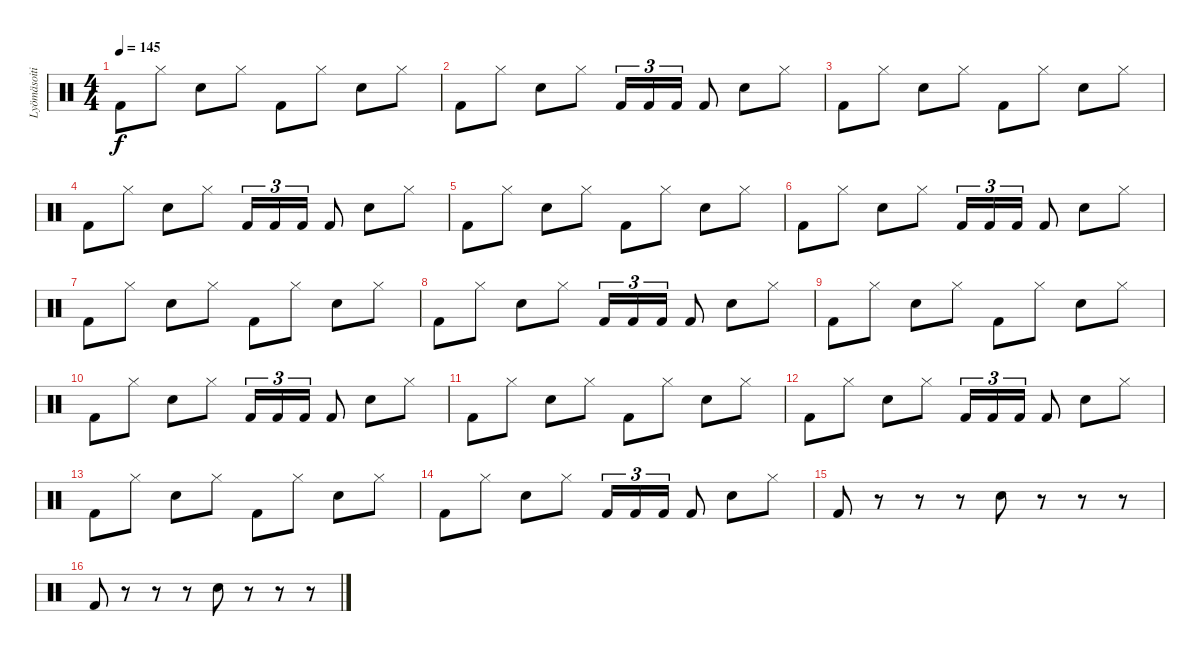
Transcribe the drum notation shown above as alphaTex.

\track ("Lyömäsoitin" "Lyömäsoiti") {instrument percussion}
\staff {score}
\articulation defaults
\ts (4 4)
\tempo 145
\clef neutral
\ks c "Kick (hit) 2".8{dy f} "Hi-Hat (closed)".8 "Electric Snare (hit)".8 "Hi-Hat (closed)".8 "Kick (hit) 2".8 "Hi-Hat (closed)".8 "Electric Snare (hit)".8 "Hi-Hat (closed)".8
|
"Kick (hit) 2".8 "Hi-Hat (closed)".8 "Electric Snare (hit)".8 "Hi-Hat (closed)".8 "Kick (hit) 2".16{tu (3 2)} "Kick (hit) 2".16{tu (3 2)} "Kick (hit) 2".16{tu (3 2)} "Kick (hit) 2".8 "Electric Snare (hit)".8 "Hi-Hat (closed)".8 |
"Kick (hit) 2".8 "Hi-Hat (closed)".8 "Electric Snare (hit)".8 "Hi-Hat (closed)".8 "Kick (hit) 2".8 "Hi-Hat (closed)".8 "Electric Snare (hit)".8 "Hi-Hat (closed)".8 |
"Kick (hit) 2".8 "Hi-Hat (closed)".8 "Electric Snare (hit)".8 "Hi-Hat (closed)".8 "Kick (hit) 2".16{tu (3 2)} "Kick (hit) 2".16{tu (3 2)} "Kick (hit) 2".16{tu (3 2)} "Kick (hit) 2".8 "Electric Snare (hit)".8 "Hi-Hat (closed)".8 |
"Kick (hit) 2".8 "Hi-Hat (closed)".8 "Electric Snare (hit)".8 "Hi-Hat (closed)".8 "Kick (hit) 2".8 "Hi-Hat (closed)".8 "Electric Snare (hit)".8 "Hi-Hat (closed)".8 |
"Kick (hit) 2".8 "Hi-Hat (closed)".8 "Electric Snare (hit)".8 "Hi-Hat (closed)".8 "Kick (hit) 2".16{tu (3 2)} "Kick (hit) 2".16{tu (3 2)} "Kick (hit) 2".16{tu (3 2)} "Kick (hit) 2".8 "Electric Snare (hit)".8 "Hi-Hat (closed)".8 |
"Kick (hit) 2".8 "Hi-Hat (closed)".8 "Electric Snare (hit)".8 "Hi-Hat (closed)".8 "Kick (hit) 2".8 "Hi-Hat (closed)".8 "Electric Snare (hit)".8 "Hi-Hat (closed)".8 |
"Kick (hit) 2".8 "Hi-Hat (closed)".8 "Electric Snare (hit)".8 "Hi-Hat (closed)".8 "Kick (hit) 2".16{tu (3 2)} "Kick (hit) 2".16{tu (3 2)} "Kick (hit) 2".16{tu (3 2)} "Kick (hit) 2".8 "Electric Snare (hit)".8 "Hi-Hat (closed)".8 |
"Kick (hit) 2".8 "Hi-Hat (closed)".8 "Electric Snare (hit)".8 "Hi-Hat (closed)".8 "Kick (hit) 2".8 "Hi-Hat (closed)".8 "Electric Snare (hit)".8 "Hi-Hat (closed)".8 |
"Kick (hit) 2".8 "Hi-Hat (closed)".8 "Electric Snare (hit)".8 "Hi-Hat (closed)".8 "Kick (hit) 2".16{tu (3 2)} "Kick (hit) 2".16{tu (3 2)} "Kick (hit) 2".16{tu (3 2)} "Kick (hit) 2".8 "Electric Snare (hit)".8 "Hi-Hat (closed)".8 |
"Kick (hit) 2".8 "Hi-Hat (closed)".8 "Electric Snare (hit)".8 "Hi-Hat (closed)".8 "Kick (hit) 2".8 "Hi-Hat (closed)".8 "Electric Snare (hit)".8 "Hi-Hat (closed)".8 |
"Kick (hit) 2".8 "Hi-Hat (closed)".8 "Electric Snare (hit)".8 "Hi-Hat (closed)".8 "Kick (hit) 2".16{tu (3 2)} "Kick (hit) 2".16{tu (3 2)} "Kick (hit) 2".16{tu (3 2)} "Kick (hit) 2".8 "Electric Snare (hit)".8 "Hi-Hat (closed)".8 |
"Kick (hit) 2".8 "Hi-Hat (closed)".8 "Electric Snare (hit)".8 "Hi-Hat (closed)".8 "Kick (hit) 2".8 "Hi-Hat (closed)".8 "Electric Snare (hit)".8 "Hi-Hat (closed)".8 |
"Kick (hit) 2".8 "Hi-Hat (closed)".8 "Electric Snare (hit)".8 "Hi-Hat (closed)".8 "Kick (hit) 2".16{tu (3 2)} "Kick (hit) 2".16{tu (3 2)} "Kick (hit) 2".16{tu (3 2)} "Kick (hit) 2".8 "Electric Snare (hit)".8 "Hi-Hat (closed)".8 |
"Kick (hit) 2".8 r.8 r.8 r.8 "Electric Snare (hit)".8 r.8 r.8 r.8 |
"Kick (hit) 2".8 r.8 r.8 r.8 "Electric Snare (hit)".8 r.8 r.8 r.8
